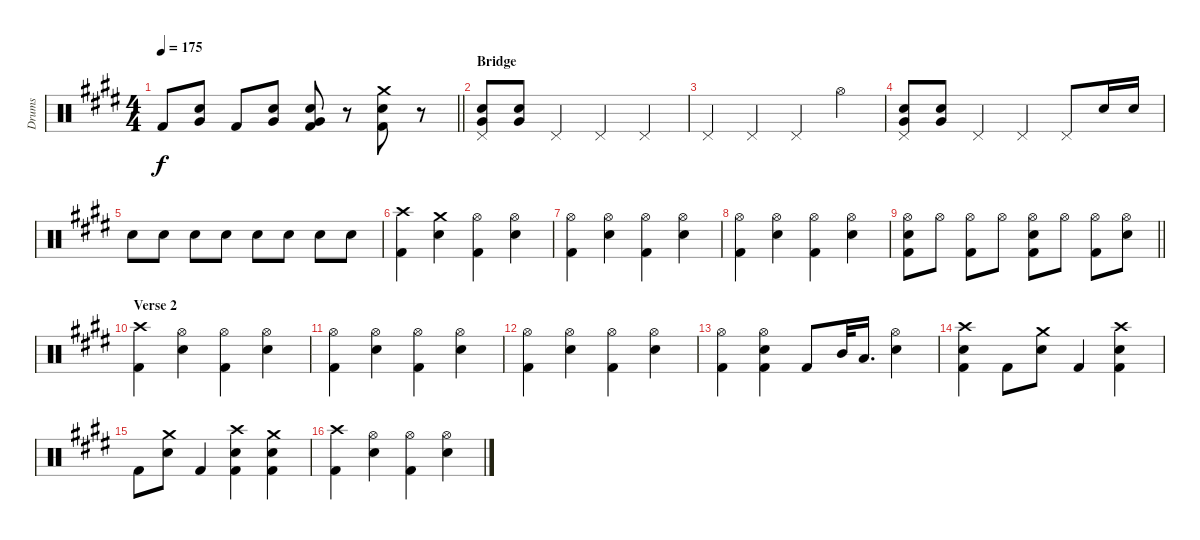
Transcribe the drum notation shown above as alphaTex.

\track ("Drums" "Drums") {instrument percussion}
\staff {score}
\articulation defaults
\ts (4 4)
\tempo 175
\clef neutral
\barLineRight lightlight
\ks e "Kick (hit) 2".8{dy f}
("Electric Snare (hit)" "Very Low Tom (hit)").8 "Kick (hit) 2".8 ("Electric Snare (hit)" "Very Low Tom (hit)").8 ("Electric Snare (hit)" "Very Low Tom (hit)" "Kick (hit) 2").8 r.8 ("Crash medium (hit)" "Electric Snare (hit)" "Kick (hit) 2").8 r.8 |
\section ("" "Bridge")
("Electric Snare (hit)" "Very Low Tom (hit)" "Pedal Hi-Hat (hit)").8 ("Electric Snare (hit)" "Very Low Tom (hit)").8 "Pedal Hi-Hat (hit)".4 "Pedal Hi-Hat (hit)".4 "Pedal Hi-Hat (hit)".4 |
"Pedal Hi-Hat (hit)".4 "Pedal Hi-Hat (hit)".4 "Pedal Hi-Hat (hit)".4 "Hi-Hat (open)".4 |
("Electric Snare (hit)" "Very Low Tom (hit)" "Pedal Hi-Hat (hit)").8 ("Electric Snare (hit)" "Very Low Tom (hit)").8 "Pedal Hi-Hat (hit)".4 "Pedal Hi-Hat (hit)".4 "Pedal Hi-Hat (hit)".8 "Electric Snare (hit)".16 "Electric Snare (hit)".16 |
"Electric Snare (hit)".8 "Electric Snare (hit)".8 "Electric Snare (hit)".8 "Electric Snare (hit)".8 "Electric Snare (hit)".8 "Electric Snare (hit)".8 "Electric Snare (hit)".8 "Electric Snare (hit)".8 |
("Crash high (hit)" "Kick (hit) 2").4 ("Crash medium (hit)" "Electric Snare (hit)").4 ("Hi-Hat (open)" "Kick (hit) 2").4 ("Hi-Hat (open)" "Electric Snare (hit)").4 |
("Hi-Hat (open)" "Kick (hit) 2").4 ("Hi-Hat (open)" "Electric Snare (hit)").4 ("Hi-Hat (open)" "Kick (hit) 2").4 ("Hi-Hat (open)" "Electric Snare (hit)").4 |
("Hi-Hat (open)" "Kick (hit) 2").4 ("Hi-Hat (open)" "Electric Snare (hit)").4 ("Hi-Hat (open)" "Kick (hit) 2").4 ("Hi-Hat (open)" "Electric Snare (hit)").4 |
\barLineRight lightlight
("Hi-Hat (open)" "Electric Snare (hit)" "Kick (hit) 2").8 "Hi-Hat (open)".8 ("Hi-Hat (open)" "Kick (hit) 2").8 "Hi-Hat (open)".8 ("Hi-Hat (open)" "Electric Snare (hit)" "Kick (hit) 2").8 "Hi-Hat (open)".8 ("Hi-Hat (open)" "Kick (hit) 2").8 ("Hi-Hat (open)" "Electric Snare (hit)").8 |
\section ("" "Verse 2")
("Crash high (hit)" "Kick (hit) 2").4 ("Hi-Hat (open)" "Electric Snare (hit)").4 ("Hi-Hat (open)" "Kick (hit) 2").4 ("Hi-Hat (open)" "Electric Snare (hit)").4 |
("Hi-Hat (open)" "Kick (hit) 2").4 ("Hi-Hat (open)" "Electric Snare (hit)").4 ("Hi-Hat (open)" "Kick (hit) 2").4 ("Hi-Hat (open)" "Electric Snare (hit)").4 |
("Hi-Hat (open)" "Kick (hit) 2").4 ("Hi-Hat (open)" "Electric Snare (hit)").4 ("Hi-Hat (open)" "Kick (hit) 2").4 ("Hi-Hat (open)" "Electric Snare (hit)").4 |
("Hi-Hat (open)" "Kick (hit) 2").4 ("Hi-Hat (open)" "Electric Snare (hit)" "Kick (hit) 2").4 "Kick (hit) 2".8 "Mid Tom (hit)".32 "Low Tom (hit)".16{d} ("Hi-Hat (open)" "Electric Snare (hit)").4 |
("Crash high (hit)" "Electric Snare (hit)" "Kick (hit) 2").4 "Kick (hit) 2".8 ("Crash medium (hit)" "Electric Snare (hit)").8 "Kick (hit) 2".4 ("Crash high (hit)" "Electric Snare (hit)" "Kick (hit) 2").4 |
"Kick (hit) 2".8 ("Crash medium (hit)" "Electric Snare (hit)").8 "Kick (hit) 2".4 ("Crash high (hit)" "Electric Snare (hit)" "Kick (hit) 2").4 ("Crash medium (hit)" "Electric Snare (hit)" "Kick (hit) 2").4 |
("Crash high (hit)" "Kick (hit) 2").4 ("Hi-Hat (open)" "Electric Snare (hit)").4 ("Hi-Hat (open)" "Kick (hit) 2").4 ("Hi-Hat (open)" "Electric Snare (hit)").4
